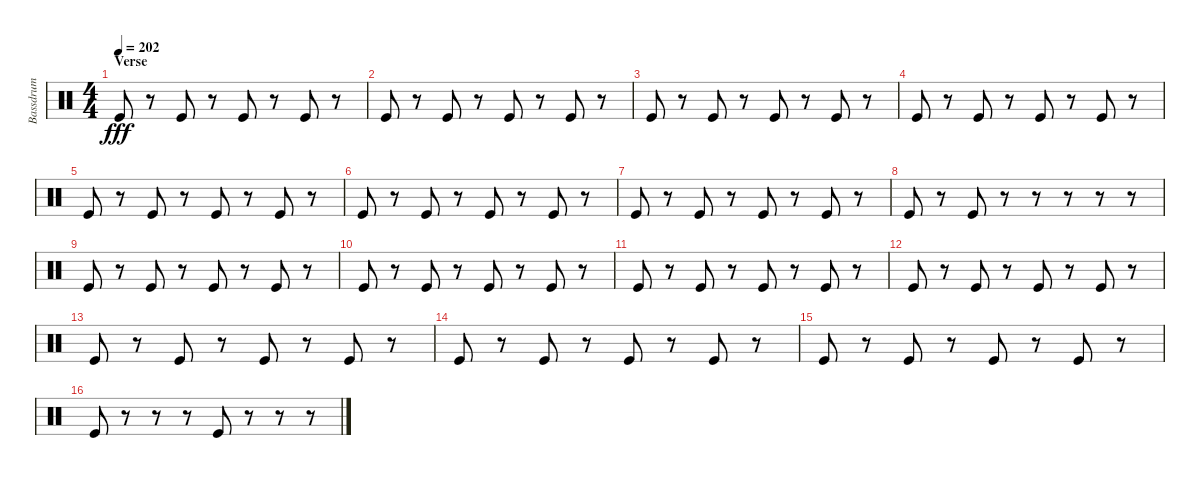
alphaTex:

\track ("Bassdrum" "Bassdrum") {instrument percussion}
\staff {score}
\articulation defaults
\ts (4 4)
\section ("" "Verse")
\tempo 202
\clef neutral
\ks c "Kick (hit)".8{dy fff}
r.8 "Kick (hit)".8 r.8 "Kick (hit)".8 r.8 "Kick (hit)".8 r.8 |
"Kick (hit)".8 r.8 "Kick (hit)".8 r.8 "Kick (hit)".8 r.8 "Kick (hit)".8 r.8 |
"Kick (hit)".8 r.8 "Kick (hit)".8 r.8 "Kick (hit)".8 r.8 "Kick (hit)".8 r.8 |
"Kick (hit)".8 r.8 "Kick (hit)".8 r.8 "Kick (hit)".8 r.8 "Kick (hit)".8 r.8 |
"Kick (hit)".8 r.8 "Kick (hit)".8 r.8 "Kick (hit)".8 r.8 "Kick (hit)".8 r.8 |
"Kick (hit)".8 r.8 "Kick (hit)".8 r.8 "Kick (hit)".8 r.8 "Kick (hit)".8 r.8 |
"Kick (hit)".8 r.8 "Kick (hit)".8 r.8 "Kick (hit)".8 r.8 "Kick (hit)".8 r.8 |
"Kick (hit)".8 r.8 "Kick (hit)".8 r.8 r.8 r.8 r.8 r.8 |
"Kick (hit)".8 r.8 "Kick (hit)".8 r.8 "Kick (hit)".8 r.8 "Kick (hit)".8 r.8 |
"Kick (hit)".8 r.8 "Kick (hit)".8 r.8 "Kick (hit)".8 r.8 "Kick (hit)".8 r.8 |
"Kick (hit)".8 r.8 "Kick (hit)".8 r.8 "Kick (hit)".8 r.8 "Kick (hit)".8 r.8 |
"Kick (hit)".8 r.8 "Kick (hit)".8 r.8 "Kick (hit)".8 r.8 "Kick (hit)".8 r.8 |
"Kick (hit)".8 r.8 "Kick (hit)".8 r.8 "Kick (hit)".8 r.8 "Kick (hit)".8 r.8 |
"Kick (hit)".8 r.8 "Kick (hit)".8 r.8 "Kick (hit)".8 r.8 "Kick (hit)".8 r.8 |
"Kick (hit)".8 r.8 "Kick (hit)".8 r.8 "Kick (hit)".8 r.8 "Kick (hit)".8 r.8 |
"Kick (hit)".8 r.8 r.8 r.8 "Kick (hit)".8 r.8 r.8 r.8
